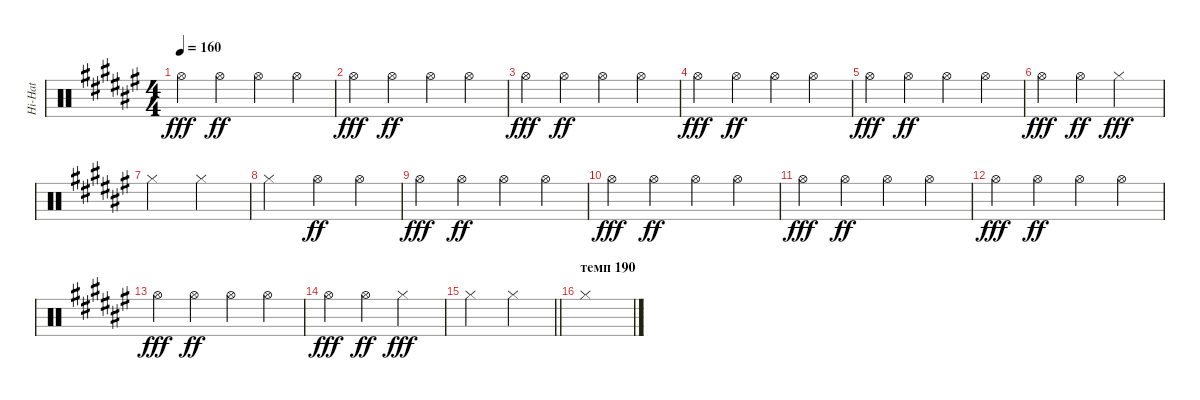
\track ("Hi-Hat" "Hi-Hat") {instrument percussion}
\staff {score}
\articulation defaults
\ts (4 4)
\tempo 160
\clef neutral
\ks d#minor "Hi-Hat (open)".4{dy fff} "Hi-Hat (open)".4{dy ff} "Hi-Hat (open)".4 "Hi-Hat (open)".4
|
"Hi-Hat (open)".4{dy fff} "Hi-Hat (open)".4{dy ff} "Hi-Hat (open)".4 "Hi-Hat (open)".4 |
"Hi-Hat (open)".4{dy fff} "Hi-Hat (open)".4{dy ff} "Hi-Hat (open)".4 "Hi-Hat (open)".4 |
"Hi-Hat (open)".4{dy fff} "Hi-Hat (open)".4{dy ff} "Hi-Hat (open)".4 "Hi-Hat (open)".4 |
"Hi-Hat (open)".4{dy fff} "Hi-Hat (open)".4{dy ff} "Hi-Hat (open)".4 "Hi-Hat (open)".4 |
"Hi-Hat (open)".4{dy fff} "Hi-Hat (open)".4{dy ff} "Hi-Hat (closed)".2{dy fff} |
"Hi-Hat (closed)".2 "Hi-Hat (closed)".2 |
"Hi-Hat (closed)".2 "Hi-Hat (open)".4{dy ff} "Hi-Hat (open)".4 |
"Hi-Hat (open)".4{dy fff} "Hi-Hat (open)".4{dy ff} "Hi-Hat (open)".4 "Hi-Hat (open)".4 |
"Hi-Hat (open)".4{dy fff} "Hi-Hat (open)".4{dy ff} "Hi-Hat (open)".4 "Hi-Hat (open)".4 |
"Hi-Hat (open)".4{dy fff} "Hi-Hat (open)".4{dy ff} "Hi-Hat (open)".4 "Hi-Hat (open)".4 |
"Hi-Hat (open)".4{dy fff} "Hi-Hat (open)".4{dy ff} "Hi-Hat (open)".4 "Hi-Hat (open)".4 |
"Hi-Hat (open)".4{dy fff} "Hi-Hat (open)".4{dy ff} "Hi-Hat (open)".4 "Hi-Hat (open)".4 |
"Hi-Hat (open)".4{dy fff} "Hi-Hat (open)".4{dy ff} "Hi-Hat (closed)".2{dy fff} |
\barLineRight lightlight "Hi-Hat (closed)".2 "Hi-Hat (closed)".2
|
\section ("" "темп 190")
"Hi-Hat (closed)".1
